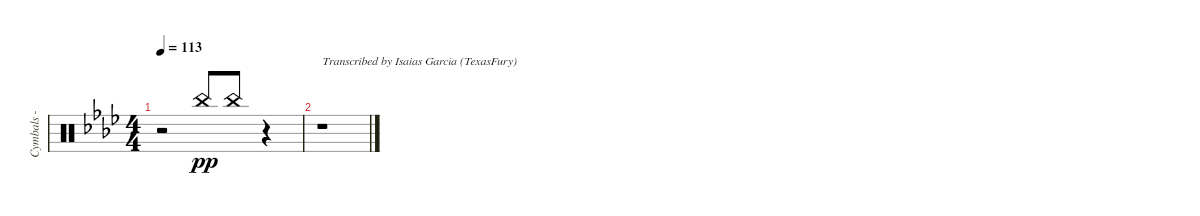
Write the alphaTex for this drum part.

\track ("Cymbals - china" "Cymbals - ") {instrument percussion}
\staff {score}
\articulation defaults
\ts (4 4)
\tempo 113
\clef neutral
\ks fminor
r.2{dy pp} "China (hit)".8{beam Up} "China (hit)".8{beam Up} r.4{volume 0} |
r.1{txt "Transcribed by Isaias Garcia (TexasFury)"}
